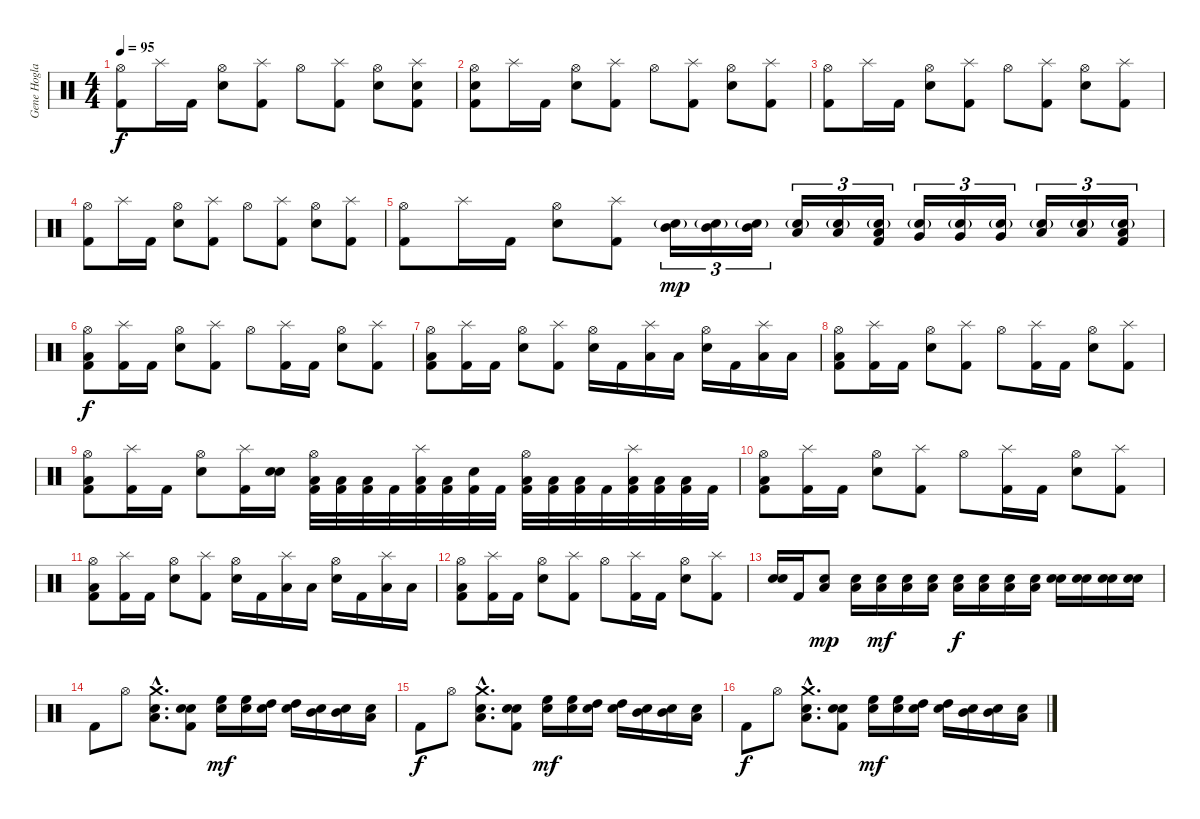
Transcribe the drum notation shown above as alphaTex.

\track ("Gene Hoglan" "Gene Hogla") {instrument percussion}
\staff {score}
\articulation defaults
\ts (4 4)
\tempo 95
\clef neutral
\ks c
("Hi-Hat (open)" "Kick (hit) 2").8{dy f} "Splash (hit)".16 "Kick (hit) 2".16 ("Hi-Hat (open)" "Electric Snare (hit)").8 ("Splash (hit)" "Kick (hit) 2").8 "Hi-Hat (open)".8 ("Splash (hit)" "Kick (hit) 2").8 ("Hi-Hat (open)" "Electric Snare (hit)").8 ("Splash (hit)" "Electric Snare (hit)" "Kick (hit) 2").8 |
("Hi-Hat (open)" "Electric Snare (hit)" "Kick (hit) 2").8 "Splash (hit)".16 "Kick (hit) 2".16 ("Hi-Hat (open)" "Electric Snare (hit)").8 ("Splash (hit)" "Kick (hit) 2").8 "Hi-Hat (open)".8 ("Splash (hit)" "Kick (hit) 2").8 ("Hi-Hat (open)" "Electric Snare (hit)").8 ("Splash (hit)" "Kick (hit) 2").8 |
("Hi-Hat (open)" "Kick (hit) 2").8 "Splash (hit)".16 "Kick (hit) 2".16 ("Hi-Hat (open)" "Electric Snare (hit)").8 ("Splash (hit)" "Kick (hit) 2").8 "Hi-Hat (open)".8 ("Splash (hit)" "Kick (hit) 2").8 ("Hi-Hat (open)" "Electric Snare (hit)").8 ("Splash (hit)" "Kick (hit) 2").8 |
("Hi-Hat (open)" "Kick (hit) 2").8 "Splash (hit)".16 "Kick (hit) 2".16 ("Hi-Hat (open)" "Electric Snare (hit)").8 ("Splash (hit)" "Kick (hit) 2").8 "Hi-Hat (open)".8 ("Splash (hit)" "Kick (hit) 2").8 ("Hi-Hat (open)" "Electric Snare (hit)").8 ("Splash (hit)" "Kick (hit) 2").8 |
("Hi-Hat (open)" "Kick (hit) 2").8 "Splash (hit)".16 "Kick (hit) 2".16 ("Hi-Hat (open)" "Electric Snare (hit)").8 ("Splash (hit)" "Kick (hit) 2").8 ("Mid Tom (hit)" "Electric Snare (hit)"{g}).16{tu (3 2) dy mp} ("Mid Tom (hit)" "Electric Snare (hit)"{g}).16{tu (3 2)} ("Mid Tom (hit)" "Electric Snare (hit)"{g}).16{tu (3 2)} ("Low Tom (hit)" "Electric Snare (hit)"{g}).16{tu (3 2)} ("Low Tom (hit)" "Electric Snare (hit)"{g}).16{tu (3 2)} ("Low Tom (hit)" "Electric Snare (hit)"{g} "Kick (hit) 2").16{tu (3 2)} ("Very Low Tom (hit)" "Electric Snare (hit)"{g}).16{tu (3 2)} ("Very Low Tom (hit)" "Electric Snare (hit)"{g}).16{tu (3 2)} ("Very Low Tom (hit)" "Electric Snare (hit)"{g}).16{tu (3 2)} ("Low Floor Tom (hit)" "Electric Snare (hit)"{g}).16{tu (3 2)} ("Low Floor Tom (hit)" "Electric Snare (hit)"{g}).16{tu (3 2)} ("Low Floor Tom (hit)" "Electric Snare (hit)"{g} "Kick (hit) 2").16{tu (3 2)} |
("Hi-Hat (open)" "Low Floor Tom (hit)" "Kick (hit) 2").8{dy f} ("Splash (hit)" "Kick (hit) 2").16 "Kick (hit) 2".16 ("Hi-Hat (open)" "Snare (hit) 2").8 ("Splash (hit)" "Kick (hit) 2").8 "Hi-Hat (open)".8 ("Splash (hit)" "Kick (hit) 2").16 "Kick (hit) 2".16 ("Hi-Hat (open)" "Electric Snare (hit)").8 ("Splash (hit)" "Kick (hit) 2").8 |
("Hi-Hat (open)" "Low Floor Tom (hit)" "Kick (hit) 2").8 ("Splash (hit)" "Kick (hit) 2").16 "Kick (hit) 2".16 ("Hi-Hat (open)" "Snare (hit) 2").8 ("Splash (hit)" "Kick (hit) 2").8 ("Hi-Hat (open)" "Electric Snare (hit)").16 "Kick (hit) 2".16 ("Splash (hit)" "Low Floor Tom (hit)").16 "Low Floor Tom (hit)".16 ("Hi-Hat (open)" "Electric Snare (hit)").16 "Kick (hit) 2".16 ("Splash (hit)" "Low Floor Tom (hit)").16 "Low Floor Tom (hit)".16 |
("Hi-Hat (open)" "Low Floor Tom (hit)" "Kick (hit) 2").8 ("Splash (hit)" "Kick (hit) 2").16 "Kick (hit) 2".16 ("Hi-Hat (open)" "Snare (hit) 2").8 ("Splash (hit)" "Kick (hit) 2").8 "Hi-Hat (open)".8 ("Splash (hit)" "Kick (hit) 2").16 "Kick (hit) 2".16 ("Hi-Hat (open)" "Electric Snare (hit)").8 ("Splash (hit)" "Kick (hit) 2").8 |
("Hi-Hat (open)" "Low Floor Tom (hit)" "Kick (hit) 2").8 ("Splash (hit)" "Kick (hit) 2").16 "Kick (hit) 2".16 ("Hi-Hat (open)" "Snare (hit) 2").8 ("Splash (hit)" "Kick (hit) 2").16 ("Electric Snare (hit)" "Snare (hit) 2").16 ("Hi-Hat (open)" "Low Floor Tom (hit)" "Kick (hit) 2").32 ("Low Floor Tom (hit)" "Kick (hit) 2").32 ("Low Floor Tom (hit)" "Kick (hit) 2").32 "Kick (hit) 2".32 ("Splash (hit)" "Low Floor Tom (hit)" "Kick (hit) 2").32 ("Low Floor Tom (hit)" "Kick (hit) 2").32 ("Snare (hit)" "Kick (hit) 2").32 "Kick (hit) 2".32 ("Hi-Hat (open)" "Low Floor Tom (hit)" "Kick (hit) 2").32 ("Low Floor Tom (hit)" "Kick (hit) 2").32 ("Low Floor Tom (hit)" "Kick (hit) 2").32 "Kick (hit) 2".32 ("Splash (hit)" "Low Floor Tom (hit)" "Kick (hit) 2").32 ("Low Floor Tom (hit)" "Kick (hit) 2").32 ("Low Floor Tom (hit)" "Kick (hit) 2").32 "Kick (hit) 2".32 |
("Hi-Hat (open)" "Low Floor Tom (hit)" "Kick (hit) 2").8 ("Splash (hit)" "Kick (hit) 2").16 "Kick (hit) 2".16 ("Hi-Hat (open)" "Snare (hit) 2").8 ("Splash (hit)" "Kick (hit) 2").8 "Hi-Hat (open)".8 ("Splash (hit)" "Kick (hit) 2").16 "Kick (hit) 2".16 ("Hi-Hat (open)" "Electric Snare (hit)").8 ("Splash (hit)" "Kick (hit) 2").8 |
("Hi-Hat (open)" "Low Floor Tom (hit)" "Kick (hit) 2").8 ("Splash (hit)" "Kick (hit) 2").16 "Kick (hit) 2".16 ("Hi-Hat (open)" "Snare (hit) 2").8 ("Splash (hit)" "Kick (hit) 2").8 ("Hi-Hat (open)" "Electric Snare (hit)").16 "Kick (hit) 2".16 ("Splash (hit)" "Low Floor Tom (hit)").16 "Low Floor Tom (hit)".16 ("Hi-Hat (open)" "Electric Snare (hit)").16 "Kick (hit) 2".16 ("Splash (hit)" "Low Floor Tom (hit)").16 "Low Floor Tom (hit)".16 |
("Hi-Hat (open)" "Low Floor Tom (hit)" "Kick (hit) 2").8 ("Splash (hit)" "Kick (hit) 2").16 "Kick (hit) 2".16 ("Hi-Hat (open)" "Snare (hit) 2").8 ("Splash (hit)" "Kick (hit) 2").8 "Hi-Hat (open)".8 ("Splash (hit)" "Kick (hit) 2").16 "Kick (hit) 2".16 ("Hi-Hat (open)" "Electric Snare (hit)").8 ("Splash (hit)" "Kick (hit) 2").8 |
("Electric Snare (hit)" "Snare (hit) 2").16 "Kick (hit) 2".16 ("Low Floor Tom (hit)" "Electric Snare (hit)").8{dy mp} ("Low Floor Tom (hit)" "Electric Snare (hit)").16 ("Low Floor Tom (hit)" "Electric Snare (hit)").16{dy mf} ("Low Floor Tom (hit)" "Electric Snare (hit)").16 ("Low Floor Tom (hit)" "Electric Snare (hit)").16 ("Low Floor Tom (hit)" "Electric Snare (hit)").16{dy f} ("Low Floor Tom (hit)" "Electric Snare (hit)").16 ("Low Floor Tom (hit)" "Electric Snare (hit)").16 ("Low Floor Tom (hit)" "Electric Snare (hit)").16 ("Snare (hit) 2" "Electric Snare (hit)").16 ("Snare (hit) 2" "Electric Snare (hit)").16 ("Snare (hit) 2" "Electric Snare (hit)").16 ("Snare (hit) 2" "Electric Snare (hit)").16 |
"Kick (hit) 2".8 "Hi-Hat (open)".8 ("Low Floor Tom (hit)"{hac} "Crash medium (hit)"{hac} "Electric Snare (hit)"{hac}).8{d} ("Snare (hit) 2" "Electric Snare (hit)" "Kick (hit) 2").8 ("High Floor Tom (hit)" "Electric Snare (hit)").16{dy mf} ("High Floor Tom (hit)" "Electric Snare (hit)").16 ("High Tom (hit)" "Electric Snare (hit)").16 ("High Tom (hit)" "Electric Snare (hit)").16 ("Mid Tom (hit)" "Electric Snare (hit)").16 ("Mid Tom (hit)" "Electric Snare (hit)").16 ("Low Tom (hit)" "Electric Snare (hit)").16 |
"Kick (hit) 2".8{dy f} "Hi-Hat (open)".8 ("Low Floor Tom (hit)"{hac} "Crash medium (hit)"{hac} "Electric Snare (hit)"{hac}).8{d} ("Snare (hit) 2" "Electric Snare (hit)" "Kick (hit) 2").8 ("High Floor Tom (hit)" "Electric Snare (hit)").16{dy mf} ("High Floor Tom (hit)" "Electric Snare (hit)").16 ("High Tom (hit)" "Electric Snare (hit)").16 ("High Tom (hit)" "Electric Snare (hit)").16 ("Mid Tom (hit)" "Electric Snare (hit)").16 ("Mid Tom (hit)" "Electric Snare (hit)").16 ("Low Tom (hit)" "Electric Snare (hit)").16 |
"Kick (hit) 2".8{dy f} "Hi-Hat (open)".8 ("Low Floor Tom (hit)"{hac} "Crash medium (hit)"{hac} "Electric Snare (hit)"{hac}).8{d} ("Snare (hit) 2" "Electric Snare (hit)" "Kick (hit) 2").8 ("High Floor Tom (hit)" "Electric Snare (hit)").16{dy mf} ("High Floor Tom (hit)" "Electric Snare (hit)").16 ("High Tom (hit)" "Electric Snare (hit)").16 ("High Tom (hit)" "Electric Snare (hit)").16 ("Mid Tom (hit)" "Electric Snare (hit)").16 ("Mid Tom (hit)" "Electric Snare (hit)").16 ("Low Tom (hit)" "Electric Snare (hit)").16
